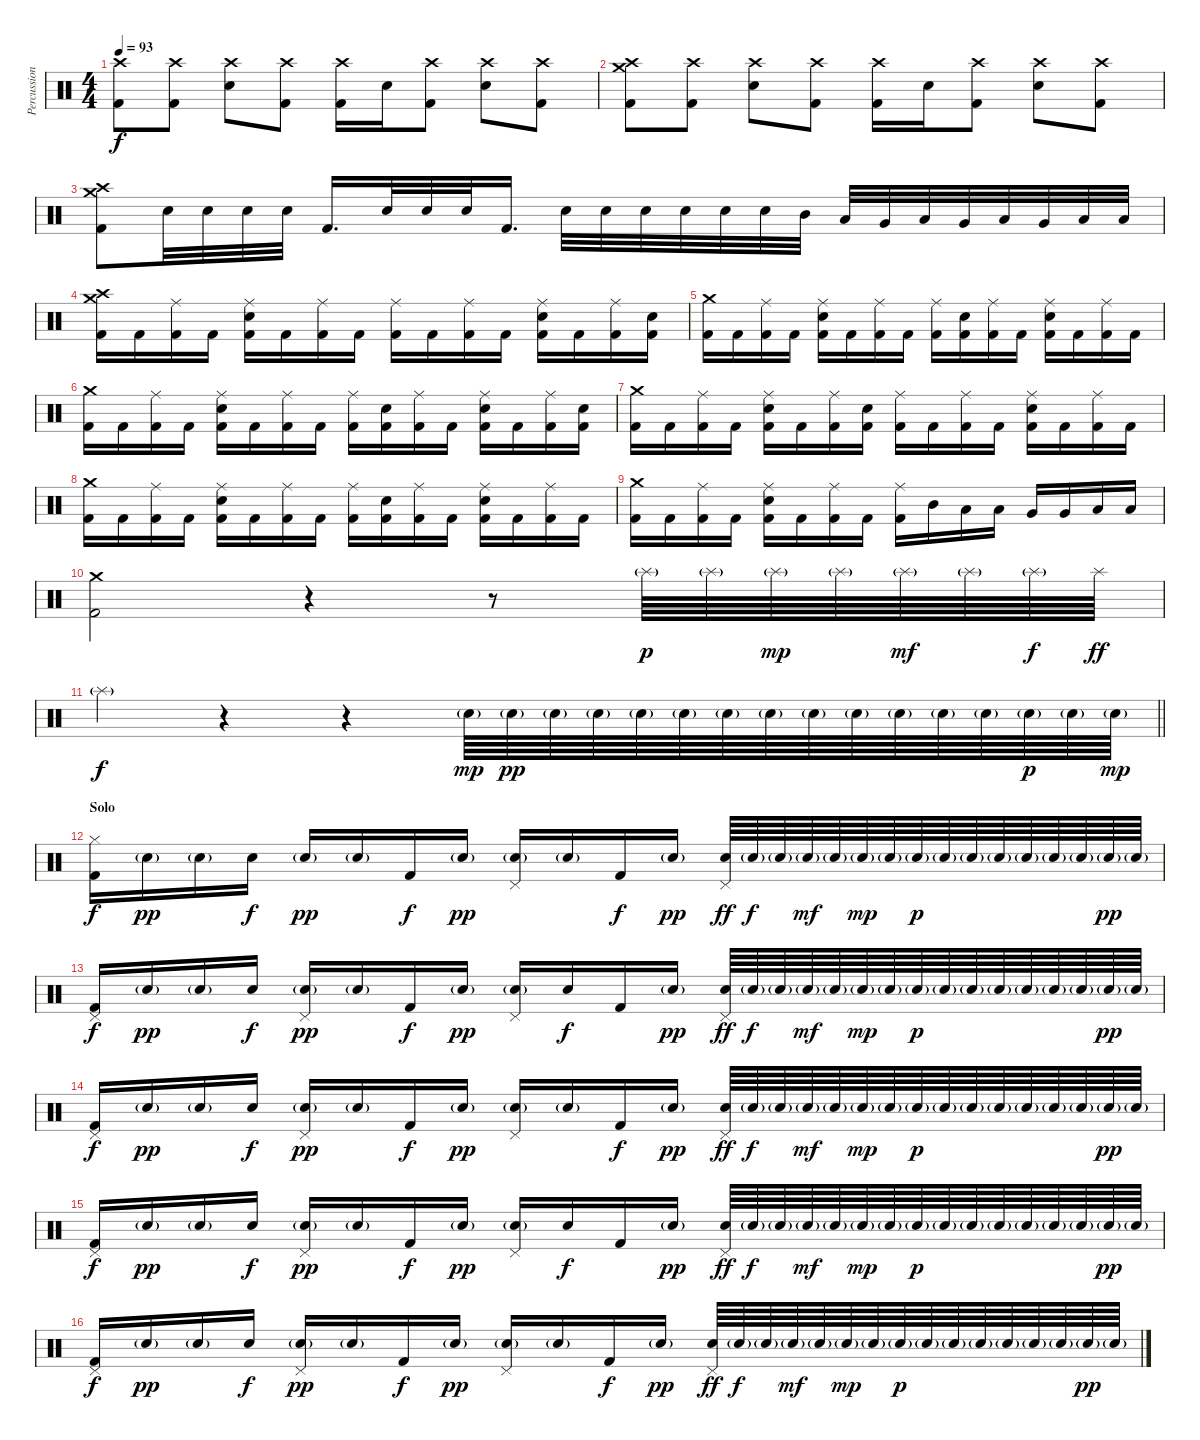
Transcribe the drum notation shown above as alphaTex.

\track ("Percussion" "Percussion") {instrument percussion}
\staff {score}
\articulation defaults
\ts (4 4)
\tempo 93
\clef neutral
\ks c
("Crash high (hit)" "Kick (hit) 2").8{dy f} ("Crash high (hit)" "Kick (hit) 2").8 ("Crash high (hit)" "Snare (hit) 2").8 ("Crash high (hit)" "Kick (hit) 2").8 ("Crash high (hit)" "Kick (hit) 2").16 "Snare (hit) 2".16 ("Crash high (hit)" "Kick (hit) 2").8 ("Crash high (hit)" "Snare (hit) 2").8 ("Crash high (hit)" "Kick (hit) 2").8 |
("Crash medium (hit)" "Crash high (hit)" "Kick (hit) 2").8 ("Crash high (hit)" "Kick (hit) 2").8 ("Crash high (hit)" "Snare (hit) 2").8 ("Crash high (hit)" "Kick (hit) 2").8 ("Crash high (hit)" "Kick (hit) 2").16 "Snare (hit) 2".16 ("Crash high (hit)" "Kick (hit) 2").8 ("Crash high (hit)" "Snare (hit) 2").8 ("Crash high (hit)" "Kick (hit) 2").8 |
("Crash medium (hit)" "Crash high (hit)" "Kick (hit) 2").8 "Snare (hit) 2".32 "Snare (hit) 2".32 "Snare (hit) 2".32 "Snare (hit) 2".32 "Kick (hit) 2".16{d} "Snare (hit) 2".32 "Snare (hit) 2".32 "Snare (hit) 2".32 "Kick (hit) 2".16{d} "Snare (hit) 2".32 "Snare (hit) 2".32 "Snare (hit) 2".32 "Snare (hit) 2".32 "Snare (hit) 2".32 "Snare (hit) 2".32 "Mid Tom (hit)".32 "Low Tom (hit)".32 "Very Low Tom (hit)".32 "Low Floor Tom (hit)".32 "Very Low Tom (hit)".32 "Low Tom (hit)".32 "Very Low Tom (hit)".32 "Low Floor Tom (hit)".32 "Low Floor Tom (hit)".32 |
("Crash medium (hit)" "Crash high (hit)" "Kick (hit) 2").16 "Kick (hit) 2".16 ("Ride (middle)" "Kick (hit) 2").16 "Kick (hit) 2".16 ("Ride (middle)" "Snare (hit) 2" "Kick (hit) 2").16 "Kick (hit) 2".16 ("Ride (middle)" "Kick (hit) 2").16 "Kick (hit) 2".16 ("Ride (middle)" "Kick (hit) 2").16 "Kick (hit) 2".16 ("Ride (middle)" "Kick (hit) 2").16 "Kick (hit) 2".16 ("Ride (middle)" "Snare (hit) 2" "Kick (hit) 2").16 "Kick (hit) 2".16 ("Ride (middle)" "Kick (hit) 2").16 ("Snare (hit) 2" "Kick (hit) 2").16 |
("Crash medium (hit)" "Kick (hit) 2").16 "Kick (hit) 2".16 ("Ride (middle)" "Kick (hit) 2").16 "Kick (hit) 2".16 ("Ride (middle)" "Snare (hit) 2" "Kick (hit) 2").16 "Kick (hit) 2".16 ("Ride (middle)" "Kick (hit) 2").16 "Kick (hit) 2".16 ("Ride (middle)" "Kick (hit) 2").16 ("Snare (hit) 2" "Kick (hit) 2").16 ("Ride (middle)" "Kick (hit) 2").16 "Kick (hit) 2".16 ("Ride (middle)" "Snare (hit) 2" "Kick (hit) 2").16 "Kick (hit) 2".16 ("Ride (middle)" "Kick (hit) 2").16 "Kick (hit) 2".16 |
("Crash medium (hit)" "Kick (hit) 2").16 "Kick (hit) 2".16 ("Ride (middle)" "Kick (hit) 2").16 "Kick (hit) 2".16 ("Ride (middle)" "Snare (hit) 2" "Kick (hit) 2").16 "Kick (hit) 2".16 ("Ride (middle)" "Kick (hit) 2").16 "Kick (hit) 2".16 ("Ride (middle)" "Kick (hit) 2").16 ("Snare (hit) 2" "Kick (hit) 2").16 ("Ride (middle)" "Kick (hit) 2").16 "Kick (hit) 2".16 ("Ride (middle)" "Snare (hit) 2" "Kick (hit) 2").16 "Kick (hit) 2".16 ("Ride (middle)" "Kick (hit) 2").16 ("Snare (hit) 2" "Kick (hit) 2").16 |
("Crash medium (hit)" "Kick (hit) 2").16 "Kick (hit) 2".16 ("Ride (middle)" "Kick (hit) 2").16 "Kick (hit) 2".16 ("Ride (middle)" "Snare (hit) 2" "Kick (hit) 2").16 "Kick (hit) 2".16 ("Ride (middle)" "Kick (hit) 2").16 ("Snare (hit) 2" "Kick (hit) 2").16 ("Ride (middle)" "Kick (hit) 2").16 "Kick (hit) 2".16 ("Ride (middle)" "Kick (hit) 2").16 "Kick (hit) 2".16 ("Ride (middle)" "Snare (hit) 2" "Kick (hit) 2").16 "Kick (hit) 2".16 ("Ride (middle)" "Kick (hit) 2").16 "Kick (hit) 2".16 |
("Crash medium (hit)" "Kick (hit) 2").16 "Kick (hit) 2".16 ("Ride (middle)" "Kick (hit) 2").16 "Kick (hit) 2".16 ("Ride (middle)" "Snare (hit) 2" "Kick (hit) 2").16 "Kick (hit) 2".16 ("Ride (middle)" "Kick (hit) 2").16 "Kick (hit) 2".16 ("Ride (middle)" "Kick (hit) 2").16 ("Snare (hit) 2" "Kick (hit) 2").16 ("Ride (middle)" "Kick (hit) 2").16 "Kick (hit) 2".16 ("Ride (middle)" "Snare (hit) 2" "Kick (hit) 2").16 "Kick (hit) 2".16 ("Ride (middle)" "Kick (hit) 2").16 "Kick (hit) 2".16 |
("Crash medium (hit)" "Kick (hit) 2").16 "Kick (hit) 2".16 ("Ride (middle)" "Kick (hit) 2").16 "Kick (hit) 2".16 ("Ride (middle)" "Snare (hit) 2" "Kick (hit) 2").16 "Kick (hit) 2".16 ("Ride (middle)" "Kick (hit) 2").16 "Kick (hit) 2".16 ("Ride (middle)" "Kick (hit) 2").16 "Mid Tom (hit)".16 "Low Tom (hit)".16 "Low Tom (hit)".16 "Very Low Tom (hit)".16 "Very Low Tom (hit)".16 "Low Floor Tom (hit)".16 "Low Floor Tom (hit)".16 |
("Crash medium (hit)" "Kick (hit) 2").2 r.4 r.8 "Splash (hit)"{g}.64{dy p} "Splash (hit)"{g}.64 "Splash (hit)"{g}.64{dy mp} "Splash (hit)"{g}.64 "Splash (hit)"{g}.64{dy mf} "Splash (hit)"{g}.64 "Splash (hit)"{g}.64{dy f} "Splash (hit)".64{dy ff} |
\barLineRight lightlight "Splash (hit)"{g}.4{dy f}
r.4 r.4 "Snare (hit) 2"{g}.64{dy mp} "Snare (hit) 2"{g}.64{dy pp} "Snare (hit) 2"{g}.64 "Snare (hit) 2"{g}.64 "Snare (hit) 2"{g}.64 "Snare (hit) 2"{g}.64 "Snare (hit) 2"{g}.64 "Snare (hit) 2"{g}.64 "Snare (hit) 2"{g}.64 "Snare (hit) 2"{g}.64 "Snare (hit) 2"{g}.64 "Snare (hit) 2"{g}.64 "Snare (hit) 2"{g}.64 "Snare (hit) 2"{g}.64{dy p} "Snare (hit) 2"{g}.64 "Snare (hit) 2"{g}.64{dy mp} |
\section ("" "Solo")
("Hi-Hat (closed)" "Kick (hit) 2").16{dy f} "Snare (hit) 2"{g}.16{dy pp} "Snare (hit) 2"{g}.16 "Snare (hit) 2".16{dy f} "Snare (hit) 2"{g}.16{dy pp} "Snare (hit) 2"{g}.16 "Kick (hit) 2".16{dy f} "Snare (hit) 2"{g}.16{dy pp} ("Snare (hit) 2"{g} "Pedal Hi-Hat (hit)").16 "Snare (hit) 2"{g}.16 "Kick (hit) 2".16{dy f} "Snare (hit) 2"{g}.16{dy pp} ("Snare (hit) 2" "Pedal Hi-Hat (hit)").64{dy ff} "Snare (hit) 2"{g}.64{dy f} "Snare (hit) 2"{g}.64 "Snare (hit) 2"{g}.64{dy mf} "Snare (hit) 2"{g}.64 "Snare (hit) 2"{g}.64{dy mp} "Snare (hit) 2"{g}.64 "Snare (hit) 2"{g}.64{dy p} "Snare (hit) 2"{g}.64 "Snare (hit) 2"{g}.64 "Snare (hit) 2"{g}.64 "Snare (hit) 2"{g}.64 "Snare (hit) 2"{g}.64 "Snare (hit) 2"{g}.64 "Snare (hit) 2"{g}.64{dy pp} "Snare (hit) 2"{g}.64 |
("Pedal Hi-Hat (hit)" "Kick (hit) 2").16{dy f} "Snare (hit) 2"{g}.16{dy pp} "Snare (hit) 2"{g}.16 "Snare (hit) 2".16{dy f} ("Snare (hit) 2"{g} "Pedal Hi-Hat (hit)").16{dy pp} "Snare (hit) 2"{g}.16 "Kick (hit) 2".16{dy f} "Snare (hit) 2"{g}.16{dy pp} ("Snare (hit) 2"{g} "Pedal Hi-Hat (hit)").16 "Snare (hit) 2".16{dy f} "Kick (hit) 2".16 "Snare (hit) 2"{g}.16{dy pp} ("Snare (hit) 2" "Pedal Hi-Hat (hit)").64{dy ff} "Snare (hit) 2"{g}.64{dy f} "Snare (hit) 2"{g}.64 "Snare (hit) 2"{g}.64{dy mf} "Snare (hit) 2"{g}.64 "Snare (hit) 2"{g}.64{dy mp} "Snare (hit) 2"{g}.64 "Snare (hit) 2"{g}.64{dy p} "Snare (hit) 2"{g}.64 "Snare (hit) 2"{g}.64 "Snare (hit) 2"{g}.64 "Snare (hit) 2"{g}.64 "Snare (hit) 2"{g}.64 "Snare (hit) 2"{g}.64 "Snare (hit) 2"{g}.64{dy pp} "Snare (hit) 2"{g}.64 |
("Pedal Hi-Hat (hit)" "Kick (hit) 2").16{dy f} "Snare (hit) 2"{g}.16{dy pp} "Snare (hit) 2"{g}.16 "Snare (hit) 2".16{dy f} ("Snare (hit) 2"{g} "Pedal Hi-Hat (hit)").16{dy pp} "Snare (hit) 2"{g}.16 "Kick (hit) 2".16{dy f} "Snare (hit) 2"{g}.16{dy pp} ("Snare (hit) 2"{g} "Pedal Hi-Hat (hit)").16 "Snare (hit) 2"{g}.16 "Kick (hit) 2".16{dy f} "Snare (hit) 2"{g}.16{dy pp} ("Snare (hit) 2" "Pedal Hi-Hat (hit)").64{dy ff} "Snare (hit) 2"{g}.64{dy f} "Snare (hit) 2"{g}.64 "Snare (hit) 2"{g}.64{dy mf} "Snare (hit) 2"{g}.64 "Snare (hit) 2"{g}.64{dy mp} "Snare (hit) 2"{g}.64 "Snare (hit) 2"{g}.64{dy p} "Snare (hit) 2"{g}.64 "Snare (hit) 2"{g}.64 "Snare (hit) 2"{g}.64 "Snare (hit) 2"{g}.64 "Snare (hit) 2"{g}.64 "Snare (hit) 2"{g}.64 "Snare (hit) 2"{g}.64{dy pp} "Snare (hit) 2"{g}.64 |
("Pedal Hi-Hat (hit)" "Kick (hit) 2").16{dy f} "Snare (hit) 2"{g}.16{dy pp} "Snare (hit) 2"{g}.16 "Snare (hit) 2".16{dy f} ("Snare (hit) 2"{g} "Pedal Hi-Hat (hit)").16{dy pp} "Snare (hit) 2"{g}.16 "Kick (hit) 2".16{dy f} "Snare (hit) 2"{g}.16{dy pp} ("Snare (hit) 2"{g} "Pedal Hi-Hat (hit)").16 "Snare (hit) 2".16{dy f} "Kick (hit) 2".16 "Snare (hit) 2"{g}.16{dy pp} ("Snare (hit) 2" "Pedal Hi-Hat (hit)").64{dy ff} "Snare (hit) 2"{g}.64{dy f} "Snare (hit) 2"{g}.64 "Snare (hit) 2"{g}.64{dy mf} "Snare (hit) 2"{g}.64 "Snare (hit) 2"{g}.64{dy mp} "Snare (hit) 2"{g}.64 "Snare (hit) 2"{g}.64{dy p} "Snare (hit) 2"{g}.64 "Snare (hit) 2"{g}.64 "Snare (hit) 2"{g}.64 "Snare (hit) 2"{g}.64 "Snare (hit) 2"{g}.64 "Snare (hit) 2"{g}.64 "Snare (hit) 2"{g}.64{dy pp} "Snare (hit) 2"{g}.64 |
("Pedal Hi-Hat (hit)" "Kick (hit) 2").16{dy f} "Snare (hit) 2"{g}.16{dy pp} "Snare (hit) 2"{g}.16 "Snare (hit) 2".16{dy f} ("Snare (hit) 2"{g} "Pedal Hi-Hat (hit)").16{dy pp} "Snare (hit) 2"{g}.16 "Kick (hit) 2".16{dy f} "Snare (hit) 2"{g}.16{dy pp} ("Snare (hit) 2"{g} "Pedal Hi-Hat (hit)").16 "Snare (hit) 2"{g}.16 "Kick (hit) 2".16{dy f} "Snare (hit) 2"{g}.16{dy pp} ("Snare (hit) 2" "Pedal Hi-Hat (hit)").64{dy ff} "Snare (hit) 2"{g}.64{dy f} "Snare (hit) 2"{g}.64 "Snare (hit) 2"{g}.64{dy mf} "Snare (hit) 2"{g}.64 "Snare (hit) 2"{g}.64{dy mp} "Snare (hit) 2"{g}.64 "Snare (hit) 2"{g}.64{dy p} "Snare (hit) 2"{g}.64 "Snare (hit) 2"{g}.64 "Snare (hit) 2"{g}.64 "Snare (hit) 2"{g}.64 "Snare (hit) 2"{g}.64 "Snare (hit) 2"{g}.64 "Snare (hit) 2"{g}.64{dy pp} "Snare (hit) 2"{g}.64
